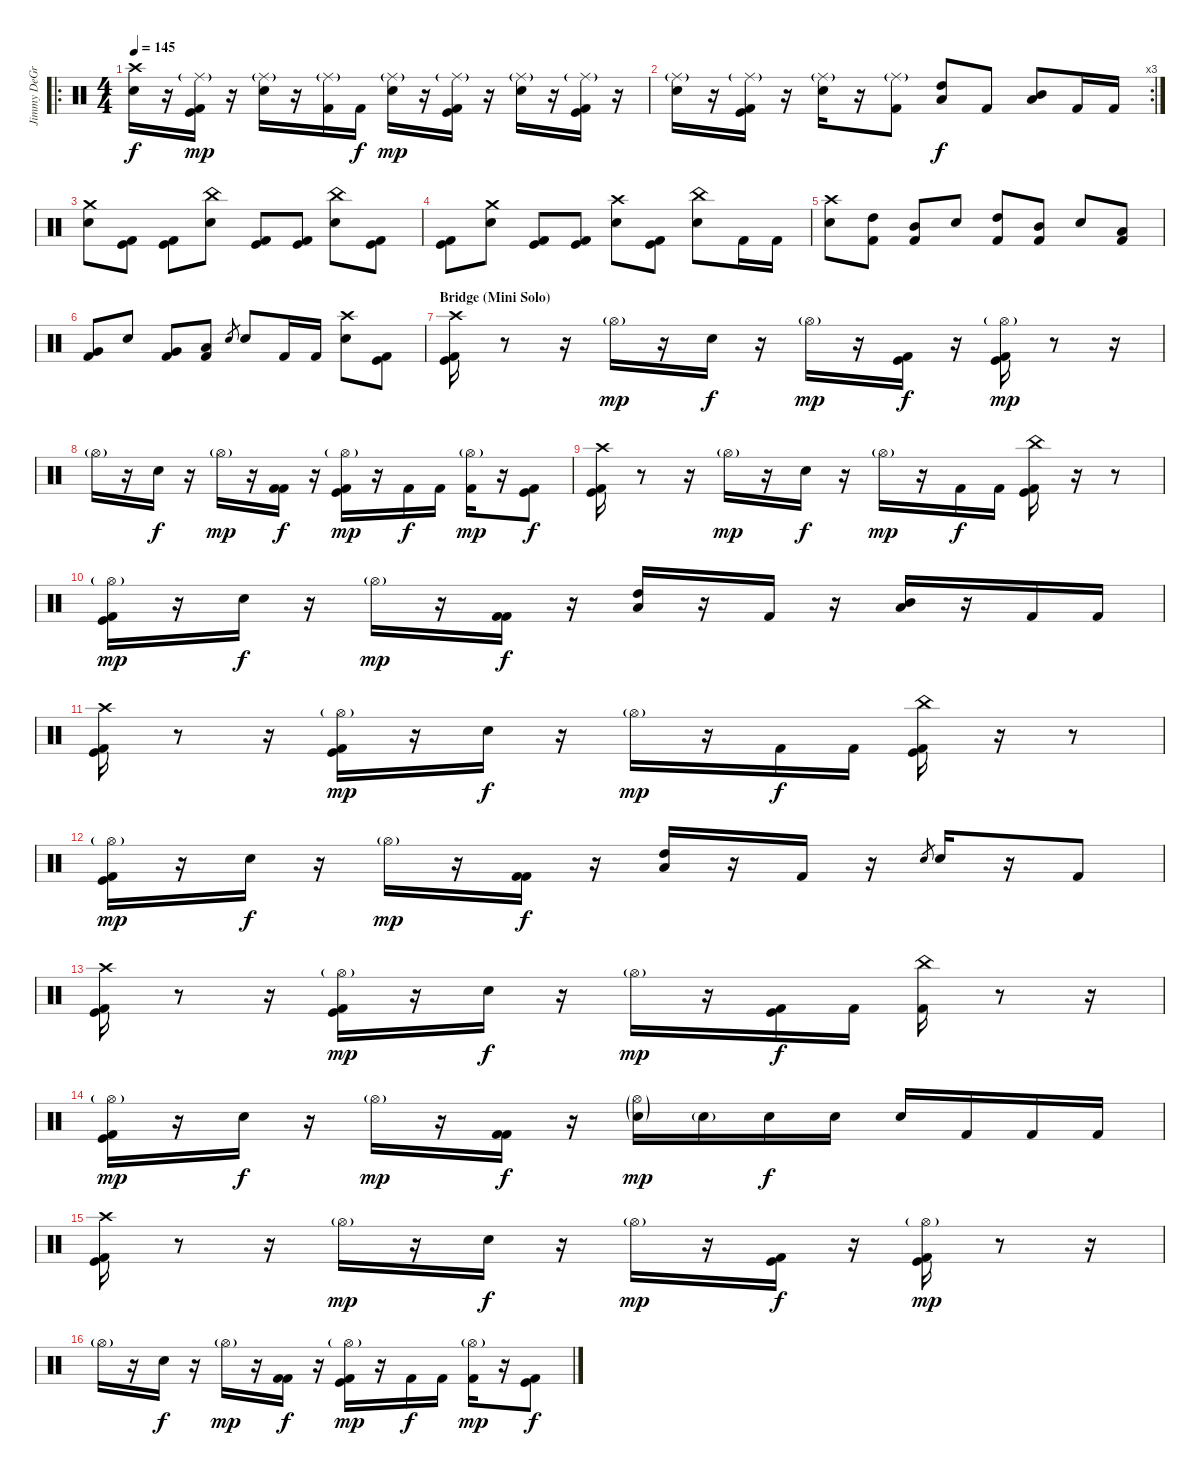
\track ("Jimmy DeGrasso" "Jimmy DeGr") {instrument percussion}
\staff {score}
\articulation defaults
\ro
\ts (4 4)
\tempo 145
\clef neutral
\ks c
("Crash high (hit)" "Electric Snare (hit)").16{dy f} r.16 ("Ride (middle)"{g} "Kick (hit)" "Kick (hit) 2").16{dy mp} r.16 ("Ride (middle)"{g} "Electric Snare (hit)").16 r.16 ("Ride (middle)"{g} "Kick (hit) 2").16 "Kick (hit) 2".16{dy f} ("Ride (middle)"{g} "Electric Snare (hit)").16{dy mp} r.16 ("Ride (middle)"{g} "Kick (hit)" "Kick (hit) 2").16 r.16 ("Ride (middle)"{g} "Electric Snare (hit)").16 r.16 ("Ride (middle)"{g} "Kick (hit)" "Kick (hit) 2").16 r.16 |
\rc 3
("Ride (middle)"{g} "Electric Snare (hit)").16 r.16 ("Ride (middle)"{g} "Kick (hit)" "Kick (hit) 2").16 r.16 ("Ride (middle)"{g} "Electric Snare (hit)").16 r.16 ("Ride (middle)"{g} "Kick (hit) 2").8 ("High Tom (hit)" "Low Floor Tom (hit)").8{dy f} "Kick (hit) 2".8 ("Mid Tom (hit)" "Low Floor Tom (hit)").8 "Kick (hit) 2".16 "Kick (hit) 2".16 |
("Crash medium (hit)" "Electric Snare (hit)").8 ("Kick (hit)" "Kick (hit) 2").8 ("Kick (hit)" "Kick (hit) 2").8 ("China (hit)" "Electric Snare (hit)").8 ("Kick (hit)" "Kick (hit) 2").8 ("Kick (hit)" "Kick (hit) 2").8 ("China (hit)" "Electric Snare (hit)").8 ("Kick (hit)" "Kick (hit) 2").8 |
("Kick (hit)" "Kick (hit) 2").8 ("Crash medium (hit)" "Electric Snare (hit)").8 ("Kick (hit)" "Kick (hit) 2").8 ("Kick (hit)" "Kick (hit) 2").8 ("Crash high (hit)" "Electric Snare (hit)").8 ("Kick (hit)" "Kick (hit) 2").8 ("China (hit)" "Electric Snare (hit)").8 "Kick (hit) 2".16 "Kick (hit) 2".16 |
("Crash high (hit)" "Electric Snare (hit)").8 ("High Tom (hit)" "Kick (hit) 2").8 ("Mid Tom (hit)" "Kick (hit) 2").8 "Electric Snare (hit)".8 ("High Tom (hit)" "Kick (hit) 2").8 ("Mid Tom (hit)" "Kick (hit) 2").8 "Electric Snare (hit)".8 ("Low Tom (hit)" "Kick (hit) 2").8 |
("Very Low Tom (hit)" "Kick (hit) 2").8 "Electric Snare (hit)".8 ("Very Low Tom (hit)" "Kick (hit) 2").8 ("Low Floor Tom (hit)" "Kick (hit) 2").8 "Electric Snare (hit)".8{gr} "Electric Snare (hit)".8 "Kick (hit) 2".16 "Kick (hit) 2".16 ("Crash high (hit)" "Electric Snare (hit)").8 ("Kick (hit)" "Kick (hit) 2").8 |
\section ("" "Bridge (Mini Solo)")
("Crash high (hit)" "Kick (hit)" "Kick (hit) 2").16 r.8 r.16 "Hi-Hat (open)"{g}.16{dy mp} r.16 "Electric Snare (hit)".16{dy f} r.16 "Hi-Hat (open)"{g}.16{dy mp} r.16 ("Kick (hit)" "Kick (hit) 2").16{dy f} r.16 ("Hi-Hat (open)"{g} "Kick (hit)" "Kick (hit) 2").16{dy mp} r.8 r.16 |
"Hi-Hat (open)"{g}.16 r.16 "Electric Snare (hit)".16{dy f} r.16 "Hi-Hat (open)"{g}.16{dy mp} r.16 ("Kick (hit) 2" "Kick (hit) 2").16{dy f} r.16 ("Hi-Hat (open)"{g} "Kick (hit)" "Kick (hit) 2").16{dy mp} r.16 "Kick (hit) 2".16{dy f} "Kick (hit) 2".16 ("Hi-Hat (open)"{g} "Kick (hit) 2").16{dy mp} r.16 ("Kick (hit)" "Kick (hit) 2").8{dy f} |
("Crash high (hit)" "Kick (hit)" "Kick (hit) 2").16 r.8 r.16 "Hi-Hat (open)"{g}.16{dy mp} r.16 "Electric Snare (hit)".16{dy f} r.16 "Hi-Hat (open)"{g}.16{dy mp} r.16 "Kick (hit) 2".16{dy f} "Kick (hit) 2".16 ("China (hit)" "Kick (hit)" "Kick (hit) 2").16 r.16 r.8 |
("Hi-Hat (open)"{g} "Kick (hit)" "Kick (hit) 2").16{dy mp} r.16 "Electric Snare (hit)".16{dy f} r.16 "Hi-Hat (open)"{g}.16{dy mp} r.16 ("Kick (hit) 2" "Kick (hit) 2").16{dy f} r.16 ("High Tom (hit)" "Low Floor Tom (hit)").16 r.16 "Kick (hit) 2".16 r.16 ("Mid Tom (hit)" "Low Floor Tom (hit)").16 r.16 "Kick (hit) 2".16 "Kick (hit) 2".16 |
("Crash high (hit)" "Kick (hit)" "Kick (hit) 2").16 r.8 r.16 ("Hi-Hat (open)"{g} "Kick (hit)" "Kick (hit) 2").16{dy mp} r.16 "Electric Snare (hit)".16{dy f} r.16 "Hi-Hat (open)"{g}.16{dy mp} r.16 "Kick (hit) 2".16{dy f} "Kick (hit) 2".16 ("China (hit)" "Kick (hit)" "Kick (hit) 2").16 r.16 r.8 |
("Hi-Hat (open)"{g} "Kick (hit)" "Kick (hit) 2").16{dy mp} r.16 "Electric Snare (hit)".16{dy f} r.16 "Hi-Hat (open)"{g}.16{dy mp} r.16 ("Kick (hit) 2" "Kick (hit) 2").16{dy f} r.16 ("High Tom (hit)" "Low Floor Tom (hit)").16 r.16 "Kick (hit) 2".16 r.16 "Electric Snare (hit)".8{gr} "Electric Snare (hit)".16 r.16 "Kick (hit) 2".8 |
("Crash high (hit)" "Kick (hit)" "Kick (hit) 2").16 r.8 r.16 ("Hi-Hat (open)"{g} "Kick (hit)" "Kick (hit) 2").16{dy mp} r.16 "Electric Snare (hit)".16{dy f} r.16 "Hi-Hat (open)"{g}.16{dy mp} r.16 ("Kick (hit)" "Kick (hit) 2").16{dy f} "Kick (hit) 2".16 ("China (hit)" "Kick (hit) 2").16 r.8 r.16 |
("Hi-Hat (open)"{g} "Kick (hit)" "Kick (hit) 2").16{dy mp} r.16 "Electric Snare (hit)".16{dy f} r.16 "Hi-Hat (open)"{g}.16{dy mp} r.16 ("Kick (hit) 2" "Kick (hit) 2").16{dy f} r.16 ("Hi-Hat (open)"{g} "Electric Snare (hit)"{g}).16{dy mp} "Electric Snare (hit)"{g}.16 "Electric Snare (hit)".16{dy f} "Electric Snare (hit)".16 "Electric Snare (hit)".16 "Kick (hit) 2".16 "Kick (hit) 2".16 "Kick (hit) 2".16 |
("Crash high (hit)" "Kick (hit)" "Kick (hit) 2").16 r.8 r.16 "Hi-Hat (open)"{g}.16{dy mp} r.16 "Electric Snare (hit)".16{dy f} r.16 "Hi-Hat (open)"{g}.16{dy mp} r.16 ("Kick (hit)" "Kick (hit) 2").16{dy f} r.16 ("Hi-Hat (open)"{g} "Kick (hit)" "Kick (hit) 2").16{dy mp} r.8 r.16 |
"Hi-Hat (open)"{g}.16 r.16 "Electric Snare (hit)".16{dy f} r.16 "Hi-Hat (open)"{g}.16{dy mp} r.16 ("Kick (hit) 2" "Kick (hit) 2").16{dy f} r.16 ("Hi-Hat (open)"{g} "Kick (hit)" "Kick (hit) 2").16{dy mp} r.16 "Kick (hit) 2".16{dy f} "Kick (hit) 2".16 ("Hi-Hat (open)"{g} "Kick (hit) 2").16{dy mp} r.16 ("Kick (hit)" "Kick (hit) 2").8{dy f}
